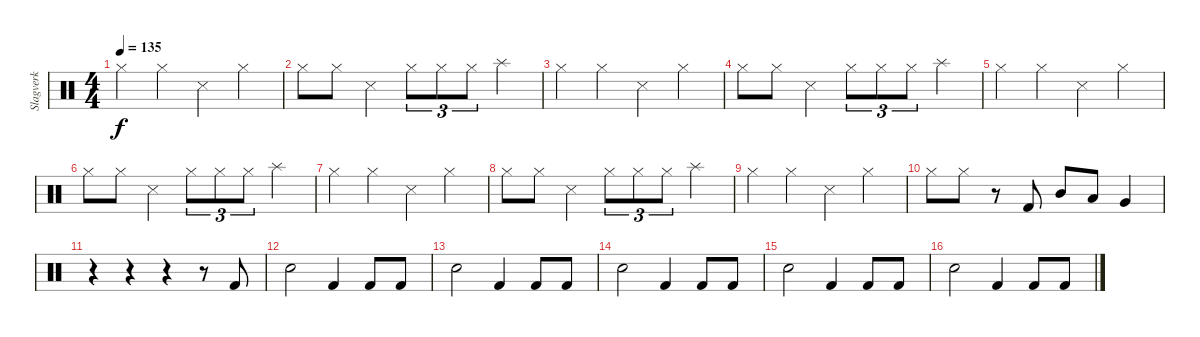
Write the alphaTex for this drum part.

\track ("Slagverk" "Slagverk") {instrument percussion}
\staff {score}
\articulation defaults
\ts (4 4)
\tempo 135
\clef neutral
\ks c "Hi-Hat (closed)".4{dy f} "Hi-Hat (closed)".4 "Snare (side stick) 3".4 "Hi-Hat (closed)".4
|
"Hi-Hat (closed)".8 "Hi-Hat (closed)".8 "Snare (side stick) 3".4 "Hi-Hat (closed)".8{tu (3 2)} "Hi-Hat (closed)".8{tu (3 2)} "Hi-Hat (closed)".8{tu (3 2)} "Splash (hit)".4 |
"Hi-Hat (closed)".4 "Hi-Hat (closed)".4 "Snare (side stick) 3".4 "Hi-Hat (closed)".4 |
"Hi-Hat (closed)".8 "Hi-Hat (closed)".8 "Snare (side stick) 3".4 "Hi-Hat (closed)".8{tu (3 2)} "Hi-Hat (closed)".8{tu (3 2)} "Hi-Hat (closed)".8{tu (3 2)} "Splash (hit)".4 |
"Hi-Hat (closed)".4 "Hi-Hat (closed)".4 "Snare (side stick) 3".4 "Hi-Hat (closed)".4 |
"Hi-Hat (closed)".8 "Hi-Hat (closed)".8 "Snare (side stick) 3".4 "Hi-Hat (closed)".8{tu (3 2)} "Hi-Hat (closed)".8{tu (3 2)} "Hi-Hat (closed)".8{tu (3 2)} "Splash (hit)".4 |
"Hi-Hat (closed)".4 "Hi-Hat (closed)".4 "Snare (side stick) 3".4 "Hi-Hat (closed)".4 |
"Hi-Hat (closed)".8 "Hi-Hat (closed)".8 "Snare (side stick) 3".4 "Hi-Hat (closed)".8{tu (3 2)} "Hi-Hat (closed)".8{tu (3 2)} "Hi-Hat (closed)".8{tu (3 2)} "Splash (hit)".4 |
"Hi-Hat (closed)".4 "Hi-Hat (closed)".4 "Snare (side stick) 3".4 "Hi-Hat (closed)".4 |
"Hi-Hat (closed)".8 "Hi-Hat (closed)".8 r.8 "Kick (hit) 2".8 "Mid Tom (hit)".8 "Low Tom (hit)".8 "Very Low Tom (hit)".4 |
r.4 r.4 r.4 r.8 "Kick (hit) 2".8 |
"Snare (hit) 2".2 "Kick (hit) 2".4 "Kick (hit) 2".8 "Kick (hit) 2".8 |
"Snare (hit) 2".2 "Kick (hit) 2".4 "Kick (hit) 2".8 "Kick (hit) 2".8 |
"Snare (hit) 2".2 "Kick (hit) 2".4 "Kick (hit) 2".8 "Kick (hit) 2".8 |
"Snare (hit) 2".2 "Kick (hit) 2".4 "Kick (hit) 2".8 "Kick (hit) 2".8 |
"Snare (hit) 2".2 "Kick (hit) 2".4 "Kick (hit) 2".8 "Kick (hit) 2".8
